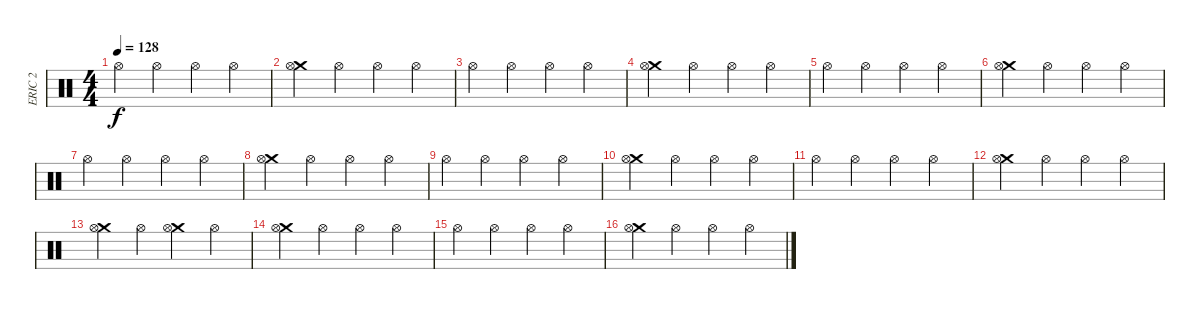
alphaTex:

\track ("ERIC 2" "ERIC 2") {instrument percussion}
\staff {score}
\articulation defaults
\ts (4 4)
\tempo 128
\clef neutral
\ks c "Hi-Hat (open)".4{dy f} "Hi-Hat (open)".4 "Hi-Hat (open)".4 "Hi-Hat (open)".4
|
("Crash medium (hit)" "Hi-Hat (open)").4 "Hi-Hat (open)".4 "Hi-Hat (open)".4 "Hi-Hat (open)".4 |
"Hi-Hat (open)".4 "Hi-Hat (open)".4 "Hi-Hat (open)".4 "Hi-Hat (open)".4 |
("Crash medium (hit)" "Hi-Hat (open)").4 "Hi-Hat (open)".4 "Hi-Hat (open)".4 "Hi-Hat (open)".4 |
"Hi-Hat (open)".4 "Hi-Hat (open)".4 "Hi-Hat (open)".4 "Hi-Hat (open)".4 |
("Crash medium (hit)" "Hi-Hat (open)").4 "Hi-Hat (open)".4 "Hi-Hat (open)".4 "Hi-Hat (open)".4 |
"Hi-Hat (open)".4 "Hi-Hat (open)".4 "Hi-Hat (open)".4 "Hi-Hat (open)".4 |
("Crash medium (hit)" "Hi-Hat (open)").4 "Hi-Hat (open)".4 "Hi-Hat (open)".4 "Hi-Hat (open)".4 |
"Hi-Hat (open)".4 "Hi-Hat (open)".4 "Hi-Hat (open)".4 "Hi-Hat (open)".4 |
("Crash medium (hit)" "Hi-Hat (open)").4 "Hi-Hat (open)".4 "Hi-Hat (open)".4 "Hi-Hat (open)".4 |
"Hi-Hat (open)".4 "Hi-Hat (open)".4 "Hi-Hat (open)".4 "Hi-Hat (open)".4 |
("Crash medium (hit)" "Hi-Hat (open)").4 "Hi-Hat (open)".4 "Hi-Hat (open)".4 "Hi-Hat (open)".4 |
("Crash medium (hit)" "Hi-Hat (open)").4 "Hi-Hat (open)".4 ("Crash medium (hit)" "Hi-Hat (open)").4 "Hi-Hat (open)".4 |
("Crash medium (hit)" "Hi-Hat (open)").4 "Hi-Hat (open)".4 "Hi-Hat (open)".4 "Hi-Hat (open)".4 |
"Hi-Hat (open)".4 "Hi-Hat (open)".4 "Hi-Hat (open)".4 "Hi-Hat (open)".4 |
("Crash medium (hit)" "Hi-Hat (open)").4 "Hi-Hat (open)".4 "Hi-Hat (open)".4 "Hi-Hat (open)".4
